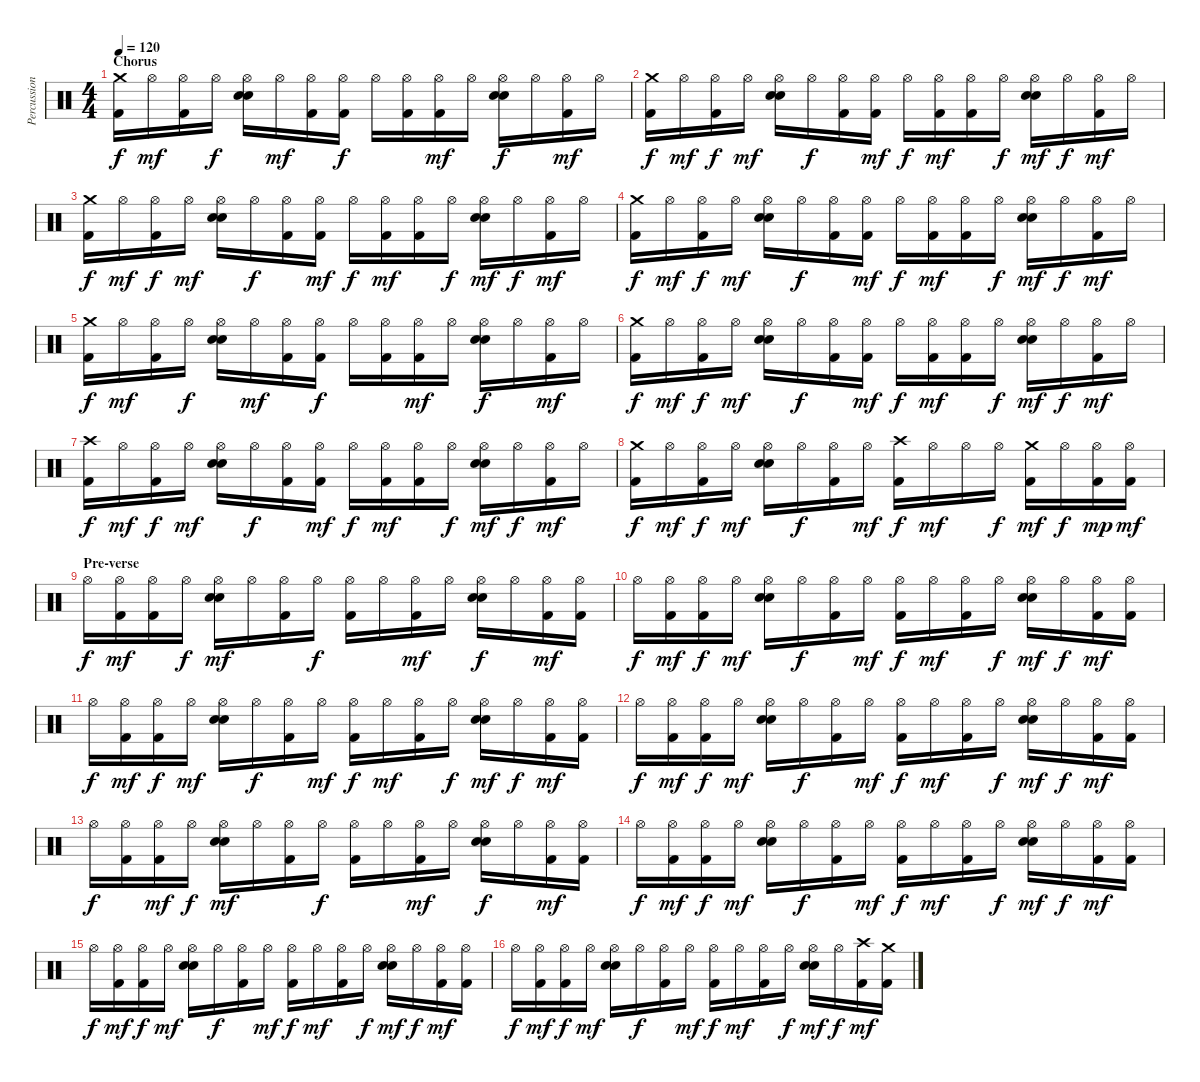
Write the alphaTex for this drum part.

\track ("Percussions" "Percussion") {instrument percussion}
\staff {score}
\articulation defaults
\ts (4 4)
\section ("" "Chorus")
\tempo 120
\clef neutral
\ks c
("Crash medium (hit)" "Kick (hit) 2").16{dy f} "Hi-Hat (open)".16{dy mf} ("Hi-Hat (open)" "Kick (hit) 2").16 "Hi-Hat (open)".16{dy f} ("Hi-Hat (open)" "Snare (hit) 2" "Electric Snare (hit)").16 "Hi-Hat (open)".16{dy mf} ("Hi-Hat (open)" "Kick (hit) 2").16 ("Hi-Hat (open)" "Kick (hit) 2").16{dy f} "Hi-Hat (open)".16 ("Hi-Hat (open)" "Kick (hit) 2").16 ("Hi-Hat (open)" "Kick (hit) 2").16{dy mf} "Hi-Hat (open)".16 ("Hi-Hat (open)" "Snare (hit) 2" "Electric Snare (hit)").16{dy f} "Hi-Hat (open)".16 ("Hi-Hat (open)" "Kick (hit) 2").16{dy mf} "Hi-Hat (open)".16 |
("Crash medium (hit)" "Kick (hit) 2").16{dy f} "Hi-Hat (open)".16{dy mf} ("Hi-Hat (open)" "Kick (hit) 2").16{dy f} "Hi-Hat (open)".16{dy mf} ("Hi-Hat (open)" "Snare (hit) 2" "Electric Snare (hit)").16 "Hi-Hat (open)".16{dy f} ("Hi-Hat (open)" "Kick (hit) 2").16 ("Hi-Hat (open)" "Kick (hit) 2").16{dy mf} "Hi-Hat (open)".16{dy f} ("Hi-Hat (open)" "Kick (hit) 2").16{dy mf} ("Hi-Hat (open)" "Kick (hit) 2").16 "Hi-Hat (open)".16{dy f} ("Hi-Hat (open)" "Snare (hit) 2" "Electric Snare (hit)").16{dy mf} "Hi-Hat (open)".16{dy f} ("Hi-Hat (open)" "Kick (hit) 2").16{dy mf} "Hi-Hat (open)".16 |
("Crash medium (hit)" "Kick (hit) 2").16{dy f} "Hi-Hat (open)".16{dy mf} ("Hi-Hat (open)" "Kick (hit) 2").16{dy f} "Hi-Hat (open)".16{dy mf} ("Hi-Hat (open)" "Snare (hit) 2" "Electric Snare (hit)").16 "Hi-Hat (open)".16{dy f} ("Hi-Hat (open)" "Kick (hit) 2").16 ("Hi-Hat (open)" "Kick (hit) 2").16{dy mf} "Hi-Hat (open)".16{dy f} ("Hi-Hat (open)" "Kick (hit) 2").16{dy mf} ("Hi-Hat (open)" "Kick (hit) 2").16 "Hi-Hat (open)".16{dy f} ("Hi-Hat (open)" "Snare (hit) 2" "Electric Snare (hit)").16{dy mf} "Hi-Hat (open)".16{dy f} ("Hi-Hat (open)" "Kick (hit) 2").16{dy mf} "Hi-Hat (open)".16 |
("Crash medium (hit)" "Kick (hit) 2").16{dy f} "Hi-Hat (open)".16{dy mf} ("Hi-Hat (open)" "Kick (hit) 2").16{dy f} "Hi-Hat (open)".16{dy mf} ("Hi-Hat (open)" "Snare (hit) 2" "Electric Snare (hit)").16 "Hi-Hat (open)".16{dy f} ("Hi-Hat (open)" "Kick (hit) 2").16 ("Hi-Hat (open)" "Kick (hit) 2").16{dy mf} "Hi-Hat (open)".16{dy f} ("Hi-Hat (open)" "Kick (hit) 2").16{dy mf} ("Hi-Hat (open)" "Kick (hit) 2").16 "Hi-Hat (open)".16{dy f} ("Hi-Hat (open)" "Snare (hit) 2" "Electric Snare (hit)").16{dy mf} "Hi-Hat (open)".16{dy f} ("Hi-Hat (open)" "Kick (hit) 2").16{dy mf} "Hi-Hat (open)".16 |
("Crash medium (hit)" "Kick (hit) 2").16{dy f} "Hi-Hat (open)".16{dy mf} ("Hi-Hat (open)" "Kick (hit) 2").16 "Hi-Hat (open)".16{dy f} ("Hi-Hat (open)" "Snare (hit) 2" "Electric Snare (hit)").16 "Hi-Hat (open)".16{dy mf} ("Hi-Hat (open)" "Kick (hit) 2").16 ("Hi-Hat (open)" "Kick (hit) 2").16{dy f} "Hi-Hat (open)".16 ("Hi-Hat (open)" "Kick (hit) 2").16 ("Hi-Hat (open)" "Kick (hit) 2").16{dy mf} "Hi-Hat (open)".16 ("Hi-Hat (open)" "Snare (hit) 2" "Electric Snare (hit)").16{dy f} "Hi-Hat (open)".16 ("Hi-Hat (open)" "Kick (hit) 2").16{dy mf} "Hi-Hat (open)".16 |
("Crash medium (hit)" "Kick (hit) 2").16{dy f} "Hi-Hat (open)".16{dy mf} ("Hi-Hat (open)" "Kick (hit) 2").16{dy f} "Hi-Hat (open)".16{dy mf} ("Hi-Hat (open)" "Snare (hit) 2" "Electric Snare (hit)").16 "Hi-Hat (open)".16{dy f} ("Hi-Hat (open)" "Kick (hit) 2").16 ("Hi-Hat (open)" "Kick (hit) 2").16{dy mf} "Hi-Hat (open)".16{dy f} ("Hi-Hat (open)" "Kick (hit) 2").16{dy mf} ("Hi-Hat (open)" "Kick (hit) 2").16 "Hi-Hat (open)".16{dy f} ("Hi-Hat (open)" "Snare (hit) 2" "Electric Snare (hit)").16{dy mf} "Hi-Hat (open)".16{dy f} ("Hi-Hat (open)" "Kick (hit) 2").16{dy mf} "Hi-Hat (open)".16 |
("Crash high (hit)" "Kick (hit) 2").16{dy f} "Hi-Hat (open)".16{dy mf} ("Hi-Hat (open)" "Kick (hit) 2").16{dy f} "Hi-Hat (open)".16{dy mf} ("Hi-Hat (open)" "Snare (hit) 2" "Electric Snare (hit)").16 "Hi-Hat (open)".16{dy f} ("Hi-Hat (open)" "Kick (hit) 2").16 ("Hi-Hat (open)" "Kick (hit) 2").16{dy mf} "Hi-Hat (open)".16{dy f} ("Hi-Hat (open)" "Kick (hit) 2").16{dy mf} ("Hi-Hat (open)" "Kick (hit) 2").16 "Hi-Hat (open)".16{dy f} ("Hi-Hat (open)" "Snare (hit) 2" "Electric Snare (hit)").16{dy mf} "Hi-Hat (open)".16{dy f} ("Hi-Hat (open)" "Kick (hit) 2").16{dy mf} "Hi-Hat (open)".16 |
("Crash medium (hit)" "Kick (hit) 2").16{dy f} "Hi-Hat (open)".16{dy mf} ("Hi-Hat (open)" "Kick (hit) 2").16{dy f} "Hi-Hat (open)".16{dy mf} ("Hi-Hat (open)" "Snare (hit) 2" "Electric Snare (hit)").16 "Hi-Hat (open)".16{dy f} ("Hi-Hat (open)" "Kick (hit) 2").16 "Hi-Hat (open)".16{dy mf} ("Crash high (hit)" "Kick (hit) 2").16{dy f} "Hi-Hat (open)".16{dy mf} "Hi-Hat (open)".16 "Hi-Hat (open)".16{dy f} ("Crash medium (hit)" "Kick (hit) 2").16{dy mf} "Hi-Hat (open)".16{dy f} ("Hi-Hat (open)" "Kick (hit) 2").16{dy mp} ("Hi-Hat (open)" "Kick (hit) 2").16{dy mf} |
\section ("" "Pre-verse")
"Hi-Hat (open)".16{dy f} ("Hi-Hat (open)" "Kick (hit) 2").16{dy mf} ("Hi-Hat (open)" "Kick (hit) 2").16 "Hi-Hat (open)".16{dy f} ("Hi-Hat (open)" "Snare (hit) 2" "Electric Snare (hit)").16{dy mf} "Hi-Hat (open)".16 ("Hi-Hat (open)" "Kick (hit) 2").16 "Hi-Hat (open)".16{dy f} ("Hi-Hat (open)" "Kick (hit) 2").16 "Hi-Hat (open)".16 ("Hi-Hat (open)" "Kick (hit) 2").16{dy mf} "Hi-Hat (open)".16 ("Hi-Hat (open)" "Snare (hit) 2" "Electric Snare (hit)").16{dy f} "Hi-Hat (open)".16 ("Hi-Hat (open)" "Kick (hit) 2").16{dy mf} ("Hi-Hat (open)" "Kick (hit) 2").16 |
"Hi-Hat (open)".16{dy f} ("Hi-Hat (open)" "Kick (hit) 2").16{dy mf} ("Hi-Hat (open)" "Kick (hit) 2").16{dy f} "Hi-Hat (open)".16{dy mf} ("Hi-Hat (open)" "Snare (hit) 2" "Electric Snare (hit)").16 "Hi-Hat (open)".16{dy f} ("Hi-Hat (open)" "Kick (hit) 2").16 "Hi-Hat (open)".16{dy mf} ("Hi-Hat (open)" "Kick (hit) 2").16{dy f} "Hi-Hat (open)".16{dy mf} ("Hi-Hat (open)" "Kick (hit) 2").16 "Hi-Hat (open)".16{dy f} ("Hi-Hat (open)" "Snare (hit) 2" "Electric Snare (hit)").16{dy mf} "Hi-Hat (open)".16{dy f} ("Hi-Hat (open)" "Kick (hit) 2").16{dy mf} ("Hi-Hat (open)" "Kick (hit) 2").16 |
"Hi-Hat (open)".16{dy f} ("Hi-Hat (open)" "Kick (hit) 2").16{dy mf} ("Hi-Hat (open)" "Kick (hit) 2").16{dy f} "Hi-Hat (open)".16{dy mf} ("Hi-Hat (open)" "Snare (hit) 2" "Electric Snare (hit)").16 "Hi-Hat (open)".16{dy f} ("Hi-Hat (open)" "Kick (hit) 2").16 "Hi-Hat (open)".16{dy mf} ("Hi-Hat (open)" "Kick (hit) 2").16{dy f} "Hi-Hat (open)".16{dy mf} ("Hi-Hat (open)" "Kick (hit) 2").16 "Hi-Hat (open)".16{dy f} ("Hi-Hat (open)" "Snare (hit) 2" "Electric Snare (hit)").16{dy mf} "Hi-Hat (open)".16{dy f} ("Hi-Hat (open)" "Kick (hit) 2").16{dy mf} ("Hi-Hat (open)" "Kick (hit) 2").16 |
"Hi-Hat (open)".16{dy f} ("Hi-Hat (open)" "Kick (hit) 2").16{dy mf} ("Hi-Hat (open)" "Kick (hit) 2").16{dy f} "Hi-Hat (open)".16{dy mf} ("Hi-Hat (open)" "Snare (hit) 2" "Electric Snare (hit)").16 "Hi-Hat (open)".16{dy f} ("Hi-Hat (open)" "Kick (hit) 2").16 "Hi-Hat (open)".16{dy mf} ("Hi-Hat (open)" "Kick (hit) 2").16{dy f} "Hi-Hat (open)".16{dy mf} ("Hi-Hat (open)" "Kick (hit) 2").16 "Hi-Hat (open)".16{dy f} ("Hi-Hat (open)" "Snare (hit) 2" "Electric Snare (hit)").16{dy mf} "Hi-Hat (open)".16{dy f} ("Hi-Hat (open)" "Kick (hit) 2").16{dy mf} ("Hi-Hat (open)" "Kick (hit) 2").16 |
"Hi-Hat (open)".16{dy f} ("Hi-Hat (open)" "Kick (hit) 2").16 ("Hi-Hat (open)" "Kick (hit) 2").16{dy mf} "Hi-Hat (open)".16{dy f} ("Hi-Hat (open)" "Snare (hit) 2" "Electric Snare (hit)").16{dy mf} "Hi-Hat (open)".16 ("Hi-Hat (open)" "Kick (hit) 2").16 "Hi-Hat (open)".16{dy f} ("Hi-Hat (open)" "Kick (hit) 2").16 "Hi-Hat (open)".16 ("Hi-Hat (open)" "Kick (hit) 2").16{dy mf} "Hi-Hat (open)".16 ("Hi-Hat (open)" "Snare (hit) 2" "Electric Snare (hit)").16{dy f} "Hi-Hat (open)".16 ("Hi-Hat (open)" "Kick (hit) 2").16{dy mf} ("Hi-Hat (open)" "Kick (hit) 2").16 |
"Hi-Hat (open)".16{dy f} ("Hi-Hat (open)" "Kick (hit) 2").16{dy mf} ("Hi-Hat (open)" "Kick (hit) 2").16{dy f} "Hi-Hat (open)".16{dy mf} ("Hi-Hat (open)" "Snare (hit) 2" "Electric Snare (hit)").16 "Hi-Hat (open)".16{dy f} ("Hi-Hat (open)" "Kick (hit) 2").16 "Hi-Hat (open)".16{dy mf} ("Hi-Hat (open)" "Kick (hit) 2").16{dy f} "Hi-Hat (open)".16{dy mf} ("Hi-Hat (open)" "Kick (hit) 2").16 "Hi-Hat (open)".16{dy f} ("Hi-Hat (open)" "Snare (hit) 2" "Electric Snare (hit)").16{dy mf} "Hi-Hat (open)".16{dy f} ("Hi-Hat (open)" "Kick (hit) 2").16{dy mf} ("Hi-Hat (open)" "Kick (hit) 2").16 |
"Hi-Hat (open)".16{dy f} ("Hi-Hat (open)" "Kick (hit) 2").16{dy mf} ("Hi-Hat (open)" "Kick (hit) 2").16{dy f} "Hi-Hat (open)".16{dy mf} ("Hi-Hat (open)" "Snare (hit) 2" "Electric Snare (hit)").16 "Hi-Hat (open)".16{dy f} ("Hi-Hat (open)" "Kick (hit) 2").16 "Hi-Hat (open)".16{dy mf} ("Hi-Hat (open)" "Kick (hit) 2").16{dy f} "Hi-Hat (open)".16{dy mf} ("Hi-Hat (open)" "Kick (hit) 2").16 "Hi-Hat (open)".16{dy f} ("Hi-Hat (open)" "Snare (hit) 2" "Electric Snare (hit)").16{dy mf} "Hi-Hat (open)".16{dy f} ("Hi-Hat (open)" "Kick (hit) 2").16{dy mf} ("Hi-Hat (open)" "Kick (hit) 2").16 |
"Hi-Hat (open)".16{dy f} ("Hi-Hat (open)" "Kick (hit) 2").16{dy mf} ("Hi-Hat (open)" "Kick (hit) 2").16{dy f} "Hi-Hat (open)".16{dy mf} ("Hi-Hat (open)" "Snare (hit) 2" "Electric Snare (hit)").16 "Hi-Hat (open)".16{dy f} ("Hi-Hat (open)" "Kick (hit) 2").16 "Hi-Hat (open)".16{dy mf} ("Hi-Hat (open)" "Kick (hit) 2").16{dy f} "Hi-Hat (open)".16{dy mf} ("Hi-Hat (open)" "Kick (hit) 2").16 "Hi-Hat (open)".16{dy f} ("Hi-Hat (open)" "Snare (hit) 2" "Electric Snare (hit)").16{dy mf} "Hi-Hat (open)".16{dy f} ("Crash high (hit)" "Kick (hit) 2").16{dy mf} ("Crash medium (hit)" "Kick (hit) 2").16
